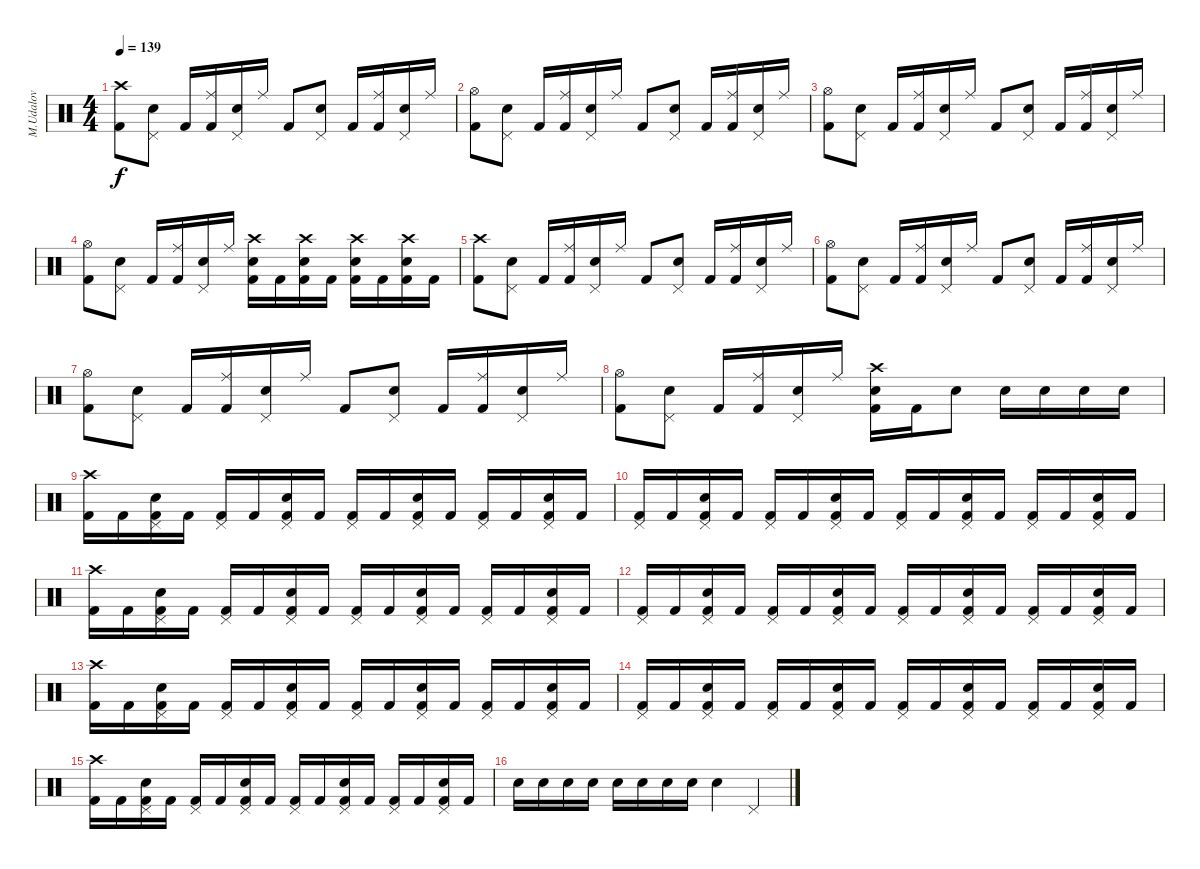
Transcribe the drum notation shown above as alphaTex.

\track ("M.Udalov" "M.Udalov") {instrument percussion}
\staff {score}
\articulation defaults
\ts (4 4)
\tempo 139
\clef neutral
\ks c
("Crash high (hit)" "Kick (hit) 2").8{dy f} ("Pedal Hi-Hat (hit)" "Snare (hit) 2").8 "Kick (hit) 2".16 ("Ride (middle)" "Kick (hit) 2").16 ("Pedal Hi-Hat (hit)" "Snare (hit) 2").16 "Ride (middle)".16 "Kick (hit) 2".8 ("Pedal Hi-Hat (hit)" "Snare (hit) 2").8 "Kick (hit) 2".16 ("Ride (middle)" "Kick (hit) 2").16 ("Pedal Hi-Hat (hit)" "Snare (hit) 2").16 "Ride (middle)".16 |
("Hi-Hat (open)" "Kick (hit) 2").8 ("Pedal Hi-Hat (hit)" "Snare (hit) 2").8 "Kick (hit) 2".16 ("Ride (middle)" "Kick (hit) 2").16 ("Pedal Hi-Hat (hit)" "Snare (hit) 2").16 "Ride (middle)".16 "Kick (hit) 2".8 ("Pedal Hi-Hat (hit)" "Snare (hit) 2").8 "Kick (hit) 2".16 ("Ride (middle)" "Kick (hit) 2").16 ("Pedal Hi-Hat (hit)" "Snare (hit) 2").16 "Ride (middle)".16 |
("Hi-Hat (open)" "Kick (hit) 2").8 ("Pedal Hi-Hat (hit)" "Snare (hit) 2").8 "Kick (hit) 2".16 ("Ride (middle)" "Kick (hit) 2").16 ("Pedal Hi-Hat (hit)" "Snare (hit) 2").16 "Ride (middle)".16 "Kick (hit) 2".8 ("Pedal Hi-Hat (hit)" "Snare (hit) 2").8 "Kick (hit) 2".16 ("Ride (middle)" "Kick (hit) 2").16 ("Pedal Hi-Hat (hit)" "Snare (hit) 2").16 "Ride (middle)".16 |
("Hi-Hat (open)" "Kick (hit) 2").8 ("Pedal Hi-Hat (hit)" "Snare (hit) 2").8 "Kick (hit) 2".16 ("Ride (middle)" "Kick (hit) 2").16 ("Pedal Hi-Hat (hit)" "Snare (hit) 2").16 "Ride (middle)".16 ("Crash high (hit)" "Snare (hit) 2" "Kick (hit) 2").16 "Kick (hit) 2".16 ("Crash high (hit)" "Snare (hit) 2" "Kick (hit) 2").16 "Kick (hit) 2".16 ("Crash high (hit)" "Snare (hit) 2" "Kick (hit) 2").16 "Kick (hit) 2".16 ("Crash high (hit)" "Snare (hit) 2" "Kick (hit) 2").16 "Kick (hit) 2".16 |
("Crash high (hit)" "Kick (hit) 2").8 ("Pedal Hi-Hat (hit)" "Snare (hit) 2").8 "Kick (hit) 2".16 ("Ride (middle)" "Kick (hit) 2").16 ("Pedal Hi-Hat (hit)" "Snare (hit) 2").16 "Ride (middle)".16 "Kick (hit) 2".8 ("Pedal Hi-Hat (hit)" "Snare (hit) 2").8 "Kick (hit) 2".16 ("Ride (middle)" "Kick (hit) 2").16 ("Pedal Hi-Hat (hit)" "Snare (hit) 2").16 "Ride (middle)".16 |
("Hi-Hat (open)" "Kick (hit) 2").8 ("Pedal Hi-Hat (hit)" "Snare (hit) 2").8 "Kick (hit) 2".16 ("Ride (middle)" "Kick (hit) 2").16 ("Pedal Hi-Hat (hit)" "Snare (hit) 2").16 "Ride (middle)".16 "Kick (hit) 2".8 ("Pedal Hi-Hat (hit)" "Snare (hit) 2").8 "Kick (hit) 2".16 ("Ride (middle)" "Kick (hit) 2").16 ("Pedal Hi-Hat (hit)" "Snare (hit) 2").16 "Ride (middle)".16 |
("Hi-Hat (open)" "Kick (hit) 2").8 ("Pedal Hi-Hat (hit)" "Snare (hit) 2").8 "Kick (hit) 2".16 ("Ride (middle)" "Kick (hit) 2").16 ("Pedal Hi-Hat (hit)" "Snare (hit) 2").16 "Ride (middle)".16 "Kick (hit) 2".8 ("Pedal Hi-Hat (hit)" "Snare (hit) 2").8 "Kick (hit) 2".16 ("Ride (middle)" "Kick (hit) 2").16 ("Pedal Hi-Hat (hit)" "Snare (hit) 2").16 "Ride (middle)".16 |
("Hi-Hat (open)" "Kick (hit) 2").8 ("Pedal Hi-Hat (hit)" "Snare (hit) 2").8 "Kick (hit) 2".16 ("Ride (middle)" "Kick (hit) 2").16 ("Pedal Hi-Hat (hit)" "Snare (hit) 2").16 "Ride (middle)".16 ("Crash high (hit)" "Snare (hit) 2" "Kick (hit) 2").16 "Kick (hit) 2".16 "Snare (hit) 2".8 "Snare (hit) 2".16 "Snare (hit) 2".16 "Snare (hit) 2".16 "Snare (hit) 2".16 |
("Crash high (hit)" "Kick (hit) 2").16 "Kick (hit) 2".16 ("Pedal Hi-Hat (hit)" "Snare (hit) 2" "Kick (hit) 2").16 "Kick (hit) 2".16 ("Pedal Hi-Hat (hit)" "Kick (hit) 2").16 "Kick (hit) 2".16 ("Pedal Hi-Hat (hit)" "Snare (hit) 2" "Kick (hit) 2").16 "Kick (hit) 2".16 ("Pedal Hi-Hat (hit)" "Kick (hit) 2").16 "Kick (hit) 2".16 ("Pedal Hi-Hat (hit)" "Snare (hit) 2" "Kick (hit) 2").16 "Kick (hit) 2".16 ("Pedal Hi-Hat (hit)" "Kick (hit) 2").16 "Kick (hit) 2".16 ("Pedal Hi-Hat (hit)" "Snare (hit) 2" "Kick (hit) 2").16 "Kick (hit) 2".16 |
("Pedal Hi-Hat (hit)" "Kick (hit) 2").16 "Kick (hit) 2".16 ("Pedal Hi-Hat (hit)" "Snare (hit) 2" "Kick (hit) 2").16 "Kick (hit) 2".16 ("Pedal Hi-Hat (hit)" "Kick (hit) 2").16 "Kick (hit) 2".16 ("Pedal Hi-Hat (hit)" "Snare (hit) 2" "Kick (hit) 2").16 "Kick (hit) 2".16 ("Pedal Hi-Hat (hit)" "Kick (hit) 2").16 "Kick (hit) 2".16 ("Pedal Hi-Hat (hit)" "Snare (hit) 2" "Kick (hit) 2").16 "Kick (hit) 2".16 ("Pedal Hi-Hat (hit)" "Kick (hit) 2").16 "Kick (hit) 2".16 ("Pedal Hi-Hat (hit)" "Snare (hit) 2" "Kick (hit) 2").16 "Kick (hit) 2".16 |
("Crash high (hit)" "Kick (hit) 2").16 "Kick (hit) 2".16 ("Pedal Hi-Hat (hit)" "Snare (hit) 2" "Kick (hit) 2").16 "Kick (hit) 2".16 ("Pedal Hi-Hat (hit)" "Kick (hit) 2").16 "Kick (hit) 2".16 ("Pedal Hi-Hat (hit)" "Snare (hit) 2" "Kick (hit) 2").16 "Kick (hit) 2".16 ("Pedal Hi-Hat (hit)" "Kick (hit) 2").16 "Kick (hit) 2".16 ("Pedal Hi-Hat (hit)" "Snare (hit) 2" "Kick (hit) 2").16 "Kick (hit) 2".16 ("Pedal Hi-Hat (hit)" "Kick (hit) 2").16 "Kick (hit) 2".16 ("Pedal Hi-Hat (hit)" "Snare (hit) 2" "Kick (hit) 2").16 "Kick (hit) 2".16 |
("Pedal Hi-Hat (hit)" "Kick (hit) 2").16 "Kick (hit) 2".16 ("Pedal Hi-Hat (hit)" "Snare (hit) 2" "Kick (hit) 2").16 "Kick (hit) 2".16 ("Pedal Hi-Hat (hit)" "Kick (hit) 2").16 "Kick (hit) 2".16 ("Pedal Hi-Hat (hit)" "Snare (hit) 2" "Kick (hit) 2").16 "Kick (hit) 2".16 ("Pedal Hi-Hat (hit)" "Kick (hit) 2").16 "Kick (hit) 2".16 ("Pedal Hi-Hat (hit)" "Snare (hit) 2" "Kick (hit) 2").16 "Kick (hit) 2".16 ("Pedal Hi-Hat (hit)" "Kick (hit) 2").16 "Kick (hit) 2".16 ("Pedal Hi-Hat (hit)" "Snare (hit) 2" "Kick (hit) 2").16 "Kick (hit) 2".16 |
("Crash high (hit)" "Kick (hit) 2").16 "Kick (hit) 2".16 ("Pedal Hi-Hat (hit)" "Snare (hit) 2" "Kick (hit) 2").16 "Kick (hit) 2".16 ("Pedal Hi-Hat (hit)" "Kick (hit) 2").16 "Kick (hit) 2".16 ("Pedal Hi-Hat (hit)" "Snare (hit) 2" "Kick (hit) 2").16 "Kick (hit) 2".16 ("Pedal Hi-Hat (hit)" "Kick (hit) 2").16 "Kick (hit) 2".16 ("Pedal Hi-Hat (hit)" "Snare (hit) 2" "Kick (hit) 2").16 "Kick (hit) 2".16 ("Pedal Hi-Hat (hit)" "Kick (hit) 2").16 "Kick (hit) 2".16 ("Pedal Hi-Hat (hit)" "Snare (hit) 2" "Kick (hit) 2").16 "Kick (hit) 2".16 |
("Pedal Hi-Hat (hit)" "Kick (hit) 2").16 "Kick (hit) 2".16 ("Pedal Hi-Hat (hit)" "Snare (hit) 2" "Kick (hit) 2").16 "Kick (hit) 2".16 ("Pedal Hi-Hat (hit)" "Kick (hit) 2").16 "Kick (hit) 2".16 ("Pedal Hi-Hat (hit)" "Snare (hit) 2" "Kick (hit) 2").16 "Kick (hit) 2".16 ("Pedal Hi-Hat (hit)" "Kick (hit) 2").16 "Kick (hit) 2".16 ("Pedal Hi-Hat (hit)" "Snare (hit) 2" "Kick (hit) 2").16 "Kick (hit) 2".16 ("Pedal Hi-Hat (hit)" "Kick (hit) 2").16 "Kick (hit) 2".16 ("Pedal Hi-Hat (hit)" "Snare (hit) 2" "Kick (hit) 2").16 "Kick (hit) 2".16 |
("Crash high (hit)" "Kick (hit) 2").16 "Kick (hit) 2".16 ("Pedal Hi-Hat (hit)" "Snare (hit) 2" "Kick (hit) 2").16 "Kick (hit) 2".16 ("Pedal Hi-Hat (hit)" "Kick (hit) 2").16 "Kick (hit) 2".16 ("Pedal Hi-Hat (hit)" "Snare (hit) 2" "Kick (hit) 2").16 "Kick (hit) 2".16 ("Pedal Hi-Hat (hit)" "Kick (hit) 2").16 "Kick (hit) 2".16 ("Pedal Hi-Hat (hit)" "Snare (hit) 2" "Kick (hit) 2").16 "Kick (hit) 2".16 ("Pedal Hi-Hat (hit)" "Kick (hit) 2").16 "Kick (hit) 2".16 ("Pedal Hi-Hat (hit)" "Snare (hit) 2" "Kick (hit) 2").16 "Kick (hit) 2".16 |
"Snare (hit) 2".16 "Snare (hit) 2".16 "Snare (hit) 2".16 "Snare (hit) 2".16 "Snare (hit) 2".16 "Snare (hit) 2".16 "Snare (hit) 2".16 "Snare (hit) 2".16 "Snare (hit) 2".4 "Pedal Hi-Hat (hit)".4
